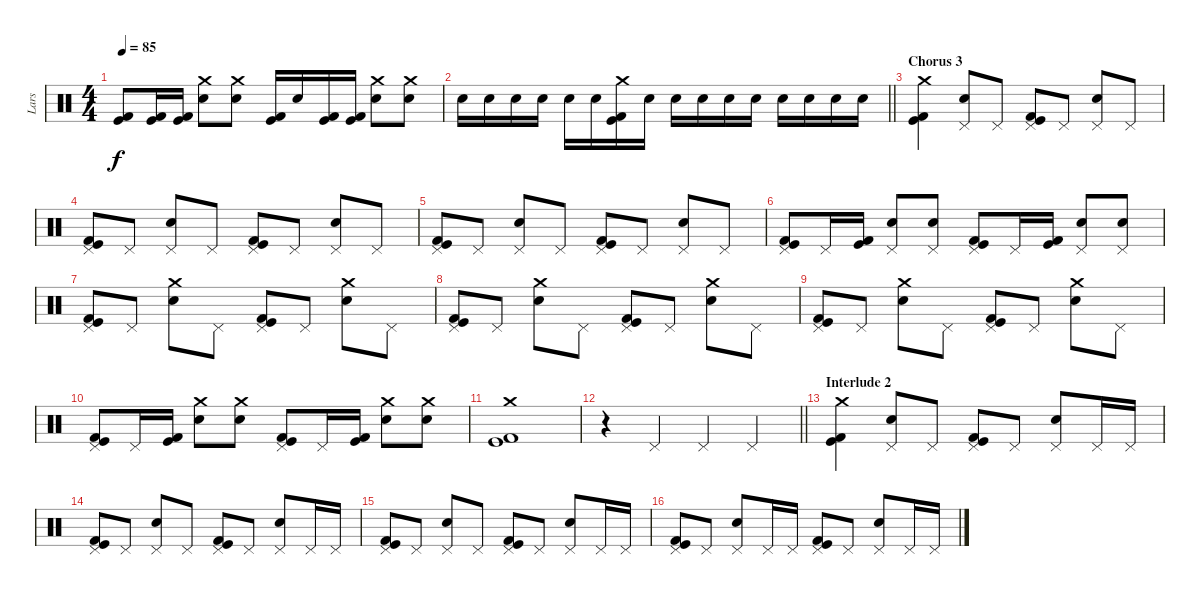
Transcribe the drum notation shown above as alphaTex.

\track ("Lars" "Lars") {instrument percussion}
\staff {score}
\articulation defaults
\ts (4 4)
\tempo 85
\clef neutral
\ks c
("Kick (hit)" "Kick (hit) 2").8{dy f} ("Kick (hit)" "Kick (hit) 2").16 ("Kick (hit)" "Kick (hit) 2").16 ("Crash medium (hit)" "Electric Snare (hit)").8 ("Crash medium (hit)" "Electric Snare (hit)").8 ("Kick (hit)" "Kick (hit) 2").16 "Electric Snare (hit)".16 ("Kick (hit)" "Kick (hit) 2").16 ("Kick (hit)" "Kick (hit) 2").16 ("Crash medium (hit)" "Electric Snare (hit)").8 ("Crash medium (hit)" "Electric Snare (hit)").8 |
\barLineRight lightlight "Electric Snare (hit)".16{volume 16} "Electric Snare (hit)".16 "Electric Snare (hit)".16 "Electric Snare (hit)".16 "Electric Snare (hit)".16 "Electric Snare (hit)".16
("Crash medium (hit)" "Kick (hit)" "Kick (hit) 2").16 "Electric Snare (hit)".16 "Electric Snare (hit)".16 "Electric Snare (hit)".16 "Electric Snare (hit)".16 "Electric Snare (hit)".16 "Electric Snare (hit)".16 "Electric Snare (hit)".16 "Electric Snare (hit)".16 "Electric Snare (hit)".16 |
\section ("" "Chorus 3")
("Crash medium (hit)" "Kick (hit)" "Kick (hit) 2").4 ("Pedal Hi-Hat (hit)" "Electric Snare (hit)").8 "Pedal Hi-Hat (hit)".8 ("Pedal Hi-Hat (hit)" "Kick (hit)" "Kick (hit) 2").8 "Pedal Hi-Hat (hit)".8 ("Pedal Hi-Hat (hit)" "Electric Snare (hit)").8 "Pedal Hi-Hat (hit)".8 |
("Pedal Hi-Hat (hit)" "Kick (hit)" "Kick (hit) 2").8 "Pedal Hi-Hat (hit)".8 ("Pedal Hi-Hat (hit)" "Electric Snare (hit)").8 "Pedal Hi-Hat (hit)".8 ("Pedal Hi-Hat (hit)" "Kick (hit)" "Kick (hit) 2").8 "Pedal Hi-Hat (hit)".8 ("Pedal Hi-Hat (hit)" "Electric Snare (hit)").8 "Pedal Hi-Hat (hit)".8 |
("Pedal Hi-Hat (hit)" "Kick (hit)" "Kick (hit) 2").8 "Pedal Hi-Hat (hit)".8 ("Pedal Hi-Hat (hit)" "Electric Snare (hit)").8 "Pedal Hi-Hat (hit)".8 ("Pedal Hi-Hat (hit)" "Kick (hit)" "Kick (hit) 2").8 "Pedal Hi-Hat (hit)".8 ("Pedal Hi-Hat (hit)" "Electric Snare (hit)").8 "Pedal Hi-Hat (hit)".8 |
("Pedal Hi-Hat (hit)" "Kick (hit)" "Kick (hit) 2").8 "Pedal Hi-Hat (hit)".16 ("Kick (hit)" "Kick (hit) 2").16 ("Pedal Hi-Hat (hit)" "Electric Snare (hit)").8 ("Pedal Hi-Hat (hit)" "Electric Snare (hit)").8 ("Pedal Hi-Hat (hit)" "Kick (hit)" "Kick (hit) 2").8 "Pedal Hi-Hat (hit)".16 ("Kick (hit)" "Kick (hit) 2").16 ("Pedal Hi-Hat (hit)" "Electric Snare (hit)").8 ("Pedal Hi-Hat (hit)" "Electric Snare (hit)").8 |
("Pedal Hi-Hat (hit)" "Kick (hit)" "Kick (hit) 2").8 "Pedal Hi-Hat (hit)".8 ("Crash medium (hit)" "Electric Snare (hit)").8 "Pedal Hi-Hat (hit)".8 ("Pedal Hi-Hat (hit)" "Kick (hit)" "Kick (hit) 2").8 "Pedal Hi-Hat (hit)".8 ("Crash medium (hit)" "Electric Snare (hit)").8 "Pedal Hi-Hat (hit)".8 |
("Pedal Hi-Hat (hit)" "Kick (hit)" "Kick (hit) 2").8 "Pedal Hi-Hat (hit)".8 ("Crash medium (hit)" "Electric Snare (hit)").8 "Pedal Hi-Hat (hit)".8 ("Pedal Hi-Hat (hit)" "Kick (hit)" "Kick (hit) 2").8 "Pedal Hi-Hat (hit)".8 ("Crash medium (hit)" "Electric Snare (hit)").8 "Pedal Hi-Hat (hit)".8 |
("Pedal Hi-Hat (hit)" "Kick (hit)" "Kick (hit) 2").8 "Pedal Hi-Hat (hit)".8 ("Crash medium (hit)" "Electric Snare (hit)").8 "Pedal Hi-Hat (hit)".8 ("Pedal Hi-Hat (hit)" "Kick (hit)" "Kick (hit) 2").8 "Pedal Hi-Hat (hit)".8 ("Crash medium (hit)" "Electric Snare (hit)").8 "Pedal Hi-Hat (hit)".8 |
("Pedal Hi-Hat (hit)" "Kick (hit)" "Kick (hit) 2").8 "Pedal Hi-Hat (hit)".16 ("Kick (hit)" "Kick (hit) 2").16 ("Crash medium (hit)" "Electric Snare (hit)").8 ("Crash medium (hit)" "Electric Snare (hit)").8 ("Pedal Hi-Hat (hit)" "Kick (hit)" "Kick (hit) 2").8 "Pedal Hi-Hat (hit)".16 ("Kick (hit)" "Kick (hit) 2").16 ("Crash medium (hit)" "Electric Snare (hit)").8 ("Crash medium (hit)" "Electric Snare (hit)").8 |
("Crash medium (hit)" "Kick (hit)" "Kick (hit) 2").1 |
\barLineRight lightlight
r.4 "Pedal Hi-Hat (hit)".4 "Pedal Hi-Hat (hit)".4 "Pedal Hi-Hat (hit)".4 |
\section ("" "Interlude 2")
("Crash medium (hit)" "Kick (hit)" "Kick (hit) 2").4 ("Pedal Hi-Hat (hit)" "Electric Snare (hit)").8 "Pedal Hi-Hat (hit)".8 ("Pedal Hi-Hat (hit)" "Kick (hit)" "Kick (hit) 2").8 "Pedal Hi-Hat (hit)".8 ("Pedal Hi-Hat (hit)" "Electric Snare (hit)").8 "Pedal Hi-Hat (hit)".16 "Pedal Hi-Hat (hit)".16 |
("Pedal Hi-Hat (hit)" "Kick (hit)" "Kick (hit) 2").8 "Pedal Hi-Hat (hit)".8 ("Pedal Hi-Hat (hit)" "Electric Snare (hit)").8 "Pedal Hi-Hat (hit)".8 ("Pedal Hi-Hat (hit)" "Kick (hit)" "Kick (hit) 2").8 "Pedal Hi-Hat (hit)".8 ("Pedal Hi-Hat (hit)" "Electric Snare (hit)").8 "Pedal Hi-Hat (hit)".16 "Pedal Hi-Hat (hit)".16 |
("Pedal Hi-Hat (hit)" "Kick (hit)" "Kick (hit) 2").8 "Pedal Hi-Hat (hit)".8 ("Pedal Hi-Hat (hit)" "Electric Snare (hit)").8 "Pedal Hi-Hat (hit)".8 ("Pedal Hi-Hat (hit)" "Kick (hit)" "Kick (hit) 2").8 "Pedal Hi-Hat (hit)".8 ("Pedal Hi-Hat (hit)" "Electric Snare (hit)").8 "Pedal Hi-Hat (hit)".16 "Pedal Hi-Hat (hit)".16 |
("Pedal Hi-Hat (hit)" "Kick (hit)" "Kick (hit) 2").8 "Pedal Hi-Hat (hit)".8 ("Pedal Hi-Hat (hit)" "Electric Snare (hit)").8 "Pedal Hi-Hat (hit)".16 "Pedal Hi-Hat (hit)".16 ("Pedal Hi-Hat (hit)" "Kick (hit)" "Kick (hit) 2").8 "Pedal Hi-Hat (hit)".8 ("Pedal Hi-Hat (hit)" "Electric Snare (hit)").8 "Pedal Hi-Hat (hit)".16 "Pedal Hi-Hat (hit)".16
